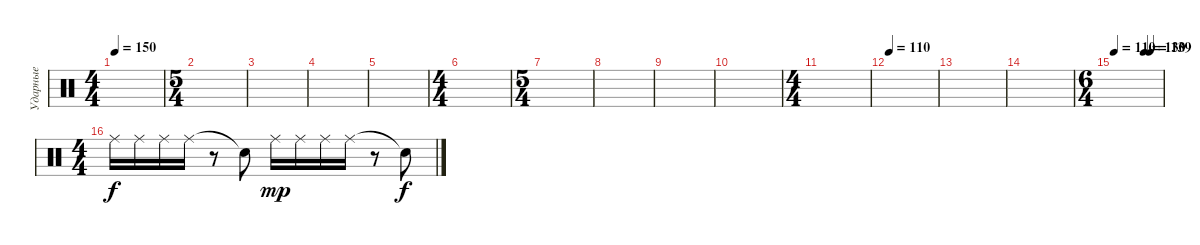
\track ("Ударные" "Ударные") {instrument percussion}
\staff {score}
\articulation defaults
\ts (4 4)
\tempo 150
\clef neutral
\ks c
|
\ts (5 4)
|
|
|
|
\ts (4 4)
|
\ts (5 4)
|
|
|
|
\ts (4 4)
|
\tempo 110
|
|
|
\ts (6 4)
\tempo 110
\tempo (130 0.625)
\tempo (139 0.75)
|
\ts (4 4)
"Ride (middle)".16 "Ride (middle)".16 "Ride (middle)".16 "Ride (middle)".16 r.8 "Snare (hit)"{t}.8{dy f} "Ride (middle)".16{dy mp} "Ride (middle)".16 "Ride (middle)".16 "Ride (middle)".16 r.8 "Snare (hit)"{t}.8{dy f}
